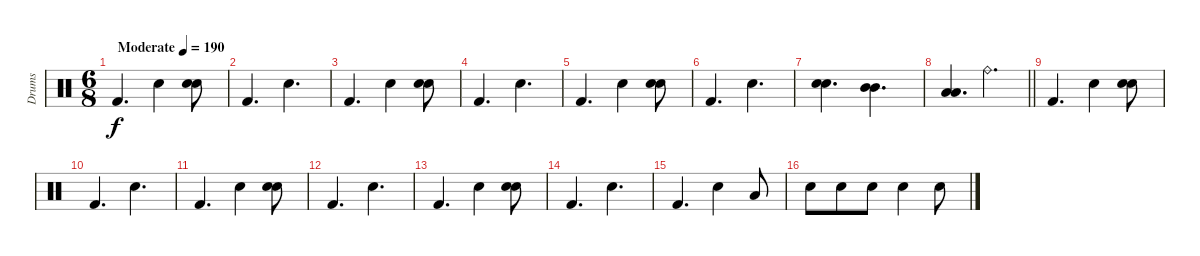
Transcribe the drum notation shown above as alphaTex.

\track ("Drums" "Drums") {instrument percussion}
\staff {score}
\articulation defaults
\ts (6 8)
\tempo (190 "Moderate")
\clef neutral
\ks c "Kick (hit) 2".4{d dy f} "Electric Snare (hit)".4
("Electric Snare (hit)" "Electric Snare (hit)").8{bd 480} |
"Kick (hit) 2".4{d} "Electric Snare (hit)".4{d} |
"Kick (hit) 2".4{d} "Electric Snare (hit)".4 ("Electric Snare (hit)" "Electric Snare (hit)").8{bd 480} |
"Kick (hit) 2".4{d} "Electric Snare (hit)".4{d} |
"Kick (hit) 2".4{d} "Electric Snare (hit)".4 ("Electric Snare (hit)" "Electric Snare (hit)").8{bd 480} |
"Kick (hit) 2".4{d} "Electric Snare (hit)".4{d} |
("Electric Snare (hit)" "Electric Snare (hit)").4{d bd 480} ("Mid Tom (hit)" "Mid Tom (hit)").4{d bd 480} |
\barLineRight lightlight
("Low Tom (hit)" "Low Tom (hit)").4{d bd 480} "Ride (bell)".4{d} |
"Kick (hit) 2".4{d} "Electric Snare (hit)".4 ("Electric Snare (hit)" "Electric Snare (hit)").8{bd 480} |
"Kick (hit) 2".4{d} "Electric Snare (hit)".4{d} |
"Kick (hit) 2".4{d} "Electric Snare (hit)".4 ("Electric Snare (hit)" "Electric Snare (hit)").8{bd 480} |
"Kick (hit) 2".4{d} "Electric Snare (hit)".4{d} |
"Kick (hit) 2".4{d} "Electric Snare (hit)".4 ("Electric Snare (hit)" "Electric Snare (hit)").8{bd 480} |
"Kick (hit) 2".4{d} "Electric Snare (hit)".4{d} |
"Kick (hit) 2".4{d} "Electric Snare (hit)".4 "Low Tom (hit)".8 |
"Electric Snare (hit)".8 "Electric Snare (hit)".8 "Electric Snare (hit)".8 "Electric Snare (hit)".4 "Electric Snare (hit)".8
